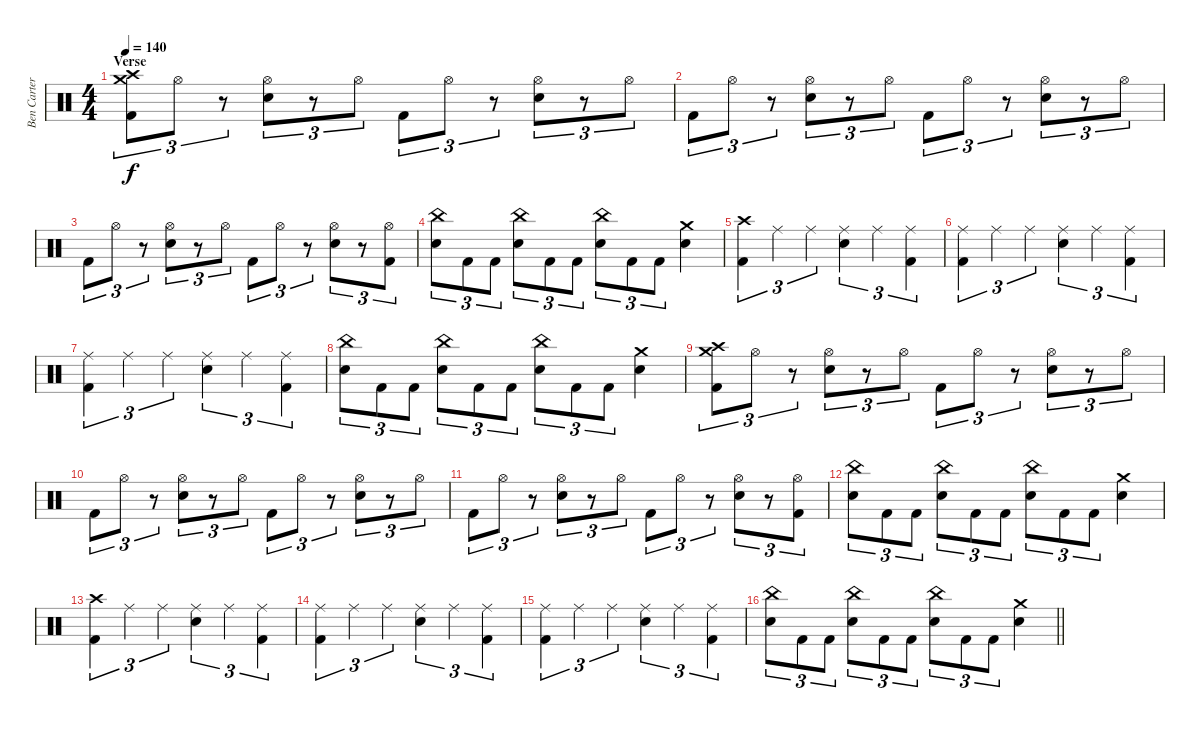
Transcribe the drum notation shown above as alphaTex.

\track ("Ben Carter" "Ben Carter") {instrument percussion}
\staff {score}
\articulation defaults
\ts (4 4)
\section ("" "Verse")
\tempo 140
\clef neutral
\ks c
("Crash medium (hit)" "Crash high (hit)" "Kick (hit) 2").8{tu (3 2) dy f} "Hi-Hat (open)".8{tu (3 2)} r.8{tu (3 2)} ("Hi-Hat (open)" "Snare (hit) 2").8{tu (3 2)} r.8{tu (3 2)} "Hi-Hat (open)".8{tu (3 2)} "Kick (hit) 2".8{tu (3 2)} "Hi-Hat (open)".8{tu (3 2)} r.8{tu (3 2)} ("Hi-Hat (open)" "Snare (hit) 2").8{tu (3 2)} r.8{tu (3 2)} "Hi-Hat (open)".8{tu (3 2)} |
"Kick (hit) 2".8{tu (3 2)} "Hi-Hat (open)".8{tu (3 2)} r.8{tu (3 2)} ("Hi-Hat (open)" "Snare (hit) 2").8{tu (3 2)} r.8{tu (3 2)} "Hi-Hat (open)".8{tu (3 2)} "Kick (hit) 2".8{tu (3 2)} "Hi-Hat (open)".8{tu (3 2)} r.8{tu (3 2)} ("Hi-Hat (open)" "Snare (hit) 2").8{tu (3 2)} r.8{tu (3 2)} "Hi-Hat (open)".8{tu (3 2)} |
"Kick (hit) 2".8{tu (3 2)} "Hi-Hat (open)".8{tu (3 2)} r.8{tu (3 2)} ("Hi-Hat (open)" "Snare (hit) 2").8{tu (3 2)} r.8{tu (3 2)} "Hi-Hat (open)".8{tu (3 2)} "Kick (hit) 2".8{tu (3 2)} "Hi-Hat (open)".8{tu (3 2)} r.8{tu (3 2)} ("Hi-Hat (open)" "Snare (hit) 2").8{tu (3 2)} r.8{tu (3 2)} ("Hi-Hat (open)" "Kick (hit) 2").8{tu (3 2)} |
("China (hit)" "Snare (hit) 2").8{tu (3 2)} "Kick (hit) 2".8{tu (3 2)} "Kick (hit) 2".8{tu (3 2)} ("China (hit)" "Snare (hit) 2").8{tu (3 2)} "Kick (hit) 2".8{tu (3 2)} "Kick (hit) 2".8{tu (3 2)} ("China (hit)" "Snare (hit) 2").8{tu (3 2)} "Kick (hit) 2".8{tu (3 2)} "Kick (hit) 2".8{tu (3 2)} ("Crash medium (hit)" "Snare (hit) 2").4 |
("Crash high (hit)" "Kick (hit) 2").4{tu (3 2)} "Ride (middle)".4{tu (3 2)} "Ride (middle)".4{tu (3 2)} ("Ride (middle)" "Snare (hit) 2").4{tu (3 2)} "Ride (middle)".4{tu (3 2)} ("Ride (middle)" "Kick (hit) 2").4{tu (3 2)} |
("Ride (middle)" "Kick (hit) 2").4{tu (3 2)} "Ride (middle)".4{tu (3 2)} "Ride (middle)".4{tu (3 2)} ("Ride (middle)" "Snare (hit) 2").4{tu (3 2)} "Ride (middle)".4{tu (3 2)} ("Ride (middle)" "Kick (hit) 2").4{tu (3 2)} |
("Ride (middle)" "Kick (hit) 2").4{tu (3 2)} "Ride (middle)".4{tu (3 2)} "Ride (middle)".4{tu (3 2)} ("Ride (middle)" "Snare (hit) 2").4{tu (3 2)} "Ride (middle)".4{tu (3 2)} ("Ride (middle)" "Kick (hit) 2").4{tu (3 2)} |
("China (hit)" "Snare (hit) 2").8{tu (3 2)} "Kick (hit) 2".8{tu (3 2)} "Kick (hit) 2".8{tu (3 2)} ("China (hit)" "Snare (hit) 2").8{tu (3 2)} "Kick (hit) 2".8{tu (3 2)} "Kick (hit) 2".8{tu (3 2)} ("China (hit)" "Snare (hit) 2").8{tu (3 2)} "Kick (hit) 2".8{tu (3 2)} "Kick (hit) 2".8{tu (3 2)} ("Crash medium (hit)" "Snare (hit) 2").4 |
("Crash medium (hit)" "Crash high (hit)" "Kick (hit) 2").8{tu (3 2)} "Hi-Hat (open)".8{tu (3 2)} r.8{tu (3 2)} ("Hi-Hat (open)" "Snare (hit) 2").8{tu (3 2)} r.8{tu (3 2)} "Hi-Hat (open)".8{tu (3 2)} "Kick (hit) 2".8{tu (3 2)} "Hi-Hat (open)".8{tu (3 2)} r.8{tu (3 2)} ("Hi-Hat (open)" "Snare (hit) 2").8{tu (3 2)} r.8{tu (3 2)} "Hi-Hat (open)".8{tu (3 2)} |
"Kick (hit) 2".8{tu (3 2)} "Hi-Hat (open)".8{tu (3 2)} r.8{tu (3 2)} ("Hi-Hat (open)" "Snare (hit) 2").8{tu (3 2)} r.8{tu (3 2)} "Hi-Hat (open)".8{tu (3 2)} "Kick (hit) 2".8{tu (3 2)} "Hi-Hat (open)".8{tu (3 2)} r.8{tu (3 2)} ("Hi-Hat (open)" "Snare (hit) 2").8{tu (3 2)} r.8{tu (3 2)} "Hi-Hat (open)".8{tu (3 2)} |
"Kick (hit) 2".8{tu (3 2)} "Hi-Hat (open)".8{tu (3 2)} r.8{tu (3 2)} ("Hi-Hat (open)" "Snare (hit) 2").8{tu (3 2)} r.8{tu (3 2)} "Hi-Hat (open)".8{tu (3 2)} "Kick (hit) 2".8{tu (3 2)} "Hi-Hat (open)".8{tu (3 2)} r.8{tu (3 2)} ("Hi-Hat (open)" "Snare (hit) 2").8{tu (3 2)} r.8{tu (3 2)} ("Hi-Hat (open)" "Kick (hit) 2").8{tu (3 2)} |
("China (hit)" "Snare (hit) 2").8{tu (3 2)} "Kick (hit) 2".8{tu (3 2)} "Kick (hit) 2".8{tu (3 2)} ("China (hit)" "Snare (hit) 2").8{tu (3 2)} "Kick (hit) 2".8{tu (3 2)} "Kick (hit) 2".8{tu (3 2)} ("China (hit)" "Snare (hit) 2").8{tu (3 2)} "Kick (hit) 2".8{tu (3 2)} "Kick (hit) 2".8{tu (3 2)} ("Crash medium (hit)" "Snare (hit) 2").4 |
("Crash high (hit)" "Kick (hit) 2").4{tu (3 2)} "Ride (middle)".4{tu (3 2)} "Ride (middle)".4{tu (3 2)} ("Ride (middle)" "Snare (hit) 2").4{tu (3 2)} "Ride (middle)".4{tu (3 2)} ("Ride (middle)" "Kick (hit) 2").4{tu (3 2)} |
("Ride (middle)" "Kick (hit) 2").4{tu (3 2)} "Ride (middle)".4{tu (3 2)} "Ride (middle)".4{tu (3 2)} ("Ride (middle)" "Snare (hit) 2").4{tu (3 2)} "Ride (middle)".4{tu (3 2)} ("Ride (middle)" "Kick (hit) 2").4{tu (3 2)} |
("Ride (middle)" "Kick (hit) 2").4{tu (3 2)} "Ride (middle)".4{tu (3 2)} "Ride (middle)".4{tu (3 2)} ("Ride (middle)" "Snare (hit) 2").4{tu (3 2)} "Ride (middle)".4{tu (3 2)} ("Ride (middle)" "Kick (hit) 2").4{tu (3 2)} |
\barLineRight lightlight
("China (hit)" "Snare (hit) 2").8{tu (3 2)} "Kick (hit) 2".8{tu (3 2)} "Kick (hit) 2".8{tu (3 2)} ("China (hit)" "Snare (hit) 2").8{tu (3 2)} "Kick (hit) 2".8{tu (3 2)} "Kick (hit) 2".8{tu (3 2)} ("China (hit)" "Snare (hit) 2").8{tu (3 2)} "Kick (hit) 2".8{tu (3 2)} "Kick (hit) 2".8{tu (3 2)} ("Crash medium (hit)" "Snare (hit) 2").4
